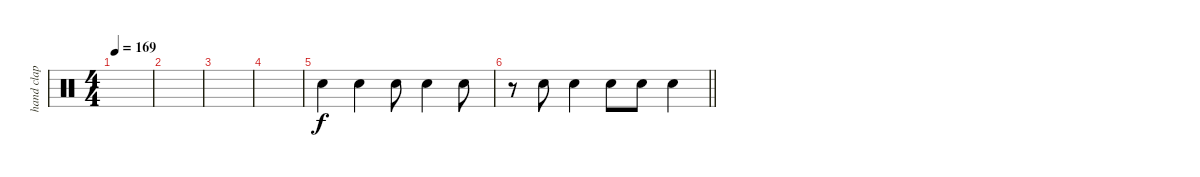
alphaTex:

\track ("hand clap" "hand clap") {instrument percussion}
\staff {score}
\articulation defaults
\ts (4 4)
\tempo 169
\clef neutral
\ks c
|
|
|
|
"Hand Clap (hit)".4 "Hand Clap (hit)".4 "Hand Clap (hit)".8 "Hand Clap (hit)".4 "Hand Clap (hit)".8 |
\barLineRight lightlight
r.8 "Hand Clap (hit)".8 "Hand Clap (hit)".4 "Hand Clap (hit)".8 "Hand Clap (hit)".8 "Hand Clap (hit)".4
